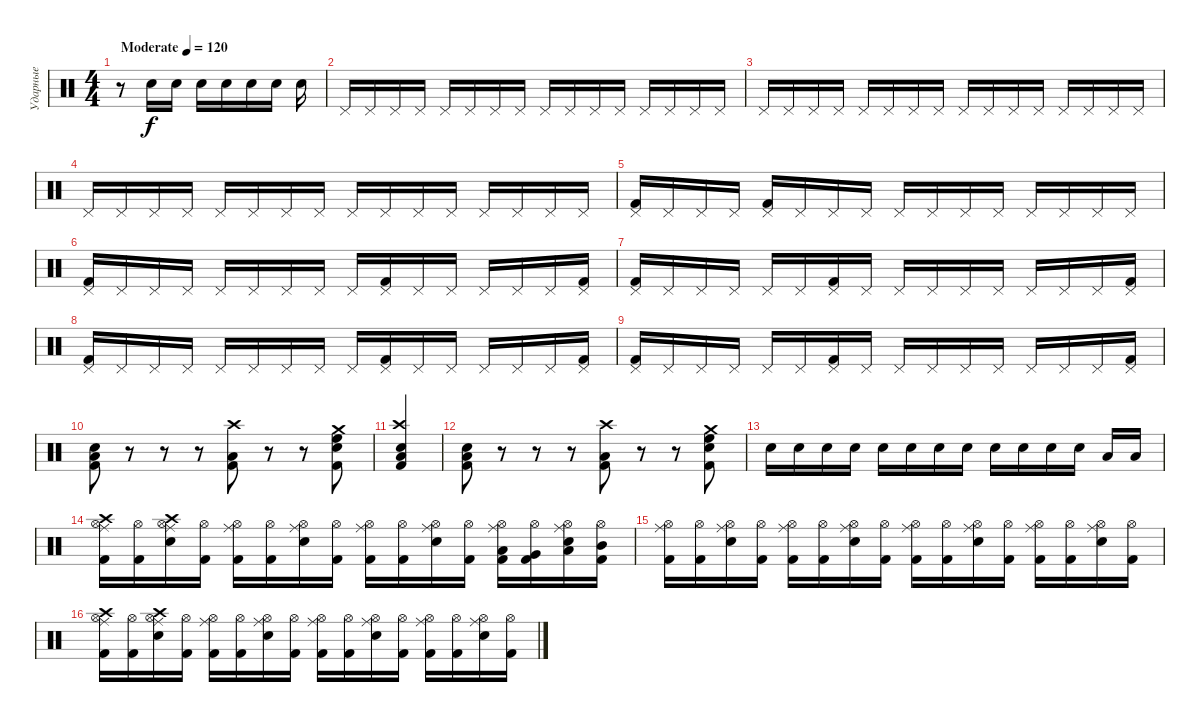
\track ("Ударные" "Ударные") {instrument percussion}
\staff {score}
\articulation defaults
\ts (4 4)
\tempo (120 "Moderate")
\clef neutral
\ks c
r.8{dy f} "Electric Snare (hit)".16 "Electric Snare (hit)".16 "Electric Snare (hit)".16 "Electric Snare (hit)".16 "Electric Snare (hit)".16 "Electric Snare (hit)".16 "Electric Snare (hit)".16 |
"Pedal Hi-Hat (hit)".16 "Pedal Hi-Hat (hit)".16 "Pedal Hi-Hat (hit)".16 "Pedal Hi-Hat (hit)".16 "Pedal Hi-Hat (hit)".16 "Pedal Hi-Hat (hit)".16 "Pedal Hi-Hat (hit)".16 "Pedal Hi-Hat (hit)".16 "Pedal Hi-Hat (hit)".16 "Pedal Hi-Hat (hit)".16 "Pedal Hi-Hat (hit)".16 "Pedal Hi-Hat (hit)".16 "Pedal Hi-Hat (hit)".16 "Pedal Hi-Hat (hit)".16 "Pedal Hi-Hat (hit)".16 "Pedal Hi-Hat (hit)".16 |
"Pedal Hi-Hat (hit)".16 "Pedal Hi-Hat (hit)".16 "Pedal Hi-Hat (hit)".16 "Pedal Hi-Hat (hit)".16 "Pedal Hi-Hat (hit)".16 "Pedal Hi-Hat (hit)".16 "Pedal Hi-Hat (hit)".16 "Pedal Hi-Hat (hit)".16 "Pedal Hi-Hat (hit)".16 "Pedal Hi-Hat (hit)".16 "Pedal Hi-Hat (hit)".16 "Pedal Hi-Hat (hit)".16 "Pedal Hi-Hat (hit)".16 "Pedal Hi-Hat (hit)".16 "Pedal Hi-Hat (hit)".16 "Pedal Hi-Hat (hit)".16 |
"Pedal Hi-Hat (hit)".16 "Pedal Hi-Hat (hit)".16 "Pedal Hi-Hat (hit)".16 "Pedal Hi-Hat (hit)".16 "Pedal Hi-Hat (hit)".16 "Pedal Hi-Hat (hit)".16 "Pedal Hi-Hat (hit)".16 "Pedal Hi-Hat (hit)".16 "Pedal Hi-Hat (hit)".16 "Pedal Hi-Hat (hit)".16 "Pedal Hi-Hat (hit)".16 "Pedal Hi-Hat (hit)".16 "Pedal Hi-Hat (hit)".16 "Pedal Hi-Hat (hit)".16 "Pedal Hi-Hat (hit)".16 "Pedal Hi-Hat (hit)".16 |
("Kick (hit) 2" "Pedal Hi-Hat (hit)").16 "Pedal Hi-Hat (hit)".16 "Pedal Hi-Hat (hit)".16 "Pedal Hi-Hat (hit)".16 ("Kick (hit) 2" "Pedal Hi-Hat (hit)").16 "Pedal Hi-Hat (hit)".16 "Pedal Hi-Hat (hit)".16 "Pedal Hi-Hat (hit)".16 "Pedal Hi-Hat (hit)".16 "Pedal Hi-Hat (hit)".16 "Pedal Hi-Hat (hit)".16 "Pedal Hi-Hat (hit)".16 "Pedal Hi-Hat (hit)".16 "Pedal Hi-Hat (hit)".16 "Pedal Hi-Hat (hit)".16 "Pedal Hi-Hat (hit)".16 |
("Kick (hit) 2" "Pedal Hi-Hat (hit)").16 "Pedal Hi-Hat (hit)".16 "Pedal Hi-Hat (hit)".16 "Pedal Hi-Hat (hit)".16 "Pedal Hi-Hat (hit)".16 "Pedal Hi-Hat (hit)".16 "Pedal Hi-Hat (hit)".16 "Pedal Hi-Hat (hit)".16 "Pedal Hi-Hat (hit)".16 ("Kick (hit) 2" "Pedal Hi-Hat (hit)").16 "Pedal Hi-Hat (hit)".16 "Pedal Hi-Hat (hit)".16 "Pedal Hi-Hat (hit)".16 "Pedal Hi-Hat (hit)".16 "Pedal Hi-Hat (hit)".16 ("Kick (hit) 2" "Pedal Hi-Hat (hit)").16 |
("Kick (hit) 2" "Pedal Hi-Hat (hit)").16 "Pedal Hi-Hat (hit)".16 "Pedal Hi-Hat (hit)".16 "Pedal Hi-Hat (hit)".16 "Pedal Hi-Hat (hit)".16 "Pedal Hi-Hat (hit)".16 ("Kick (hit) 2" "Pedal Hi-Hat (hit)").16 "Pedal Hi-Hat (hit)".16 "Pedal Hi-Hat (hit)".16 "Pedal Hi-Hat (hit)".16 "Pedal Hi-Hat (hit)".16 "Pedal Hi-Hat (hit)".16 "Pedal Hi-Hat (hit)".16 "Pedal Hi-Hat (hit)".16 "Pedal Hi-Hat (hit)".16 ("Kick (hit) 2" "Pedal Hi-Hat (hit)").16 |
("Kick (hit) 2" "Pedal Hi-Hat (hit)").16 "Pedal Hi-Hat (hit)".16 "Pedal Hi-Hat (hit)".16 "Pedal Hi-Hat (hit)".16 "Pedal Hi-Hat (hit)".16 "Pedal Hi-Hat (hit)".16 "Pedal Hi-Hat (hit)".16 "Pedal Hi-Hat (hit)".16 "Pedal Hi-Hat (hit)".16 ("Kick (hit) 2" "Pedal Hi-Hat (hit)").16 "Pedal Hi-Hat (hit)".16 "Pedal Hi-Hat (hit)".16 "Pedal Hi-Hat (hit)".16 "Pedal Hi-Hat (hit)".16 "Pedal Hi-Hat (hit)".16 ("Kick (hit) 2" "Pedal Hi-Hat (hit)").16 |
("Kick (hit) 2" "Pedal Hi-Hat (hit)").16 "Pedal Hi-Hat (hit)".16 "Pedal Hi-Hat (hit)".16 "Pedal Hi-Hat (hit)".16 "Pedal Hi-Hat (hit)".16 "Pedal Hi-Hat (hit)".16 ("Kick (hit) 2" "Pedal Hi-Hat (hit)").16 "Pedal Hi-Hat (hit)".16 "Pedal Hi-Hat (hit)".16 "Pedal Hi-Hat (hit)".16 "Pedal Hi-Hat (hit)".16 "Pedal Hi-Hat (hit)".16 "Pedal Hi-Hat (hit)".16 "Pedal Hi-Hat (hit)".16 "Pedal Hi-Hat (hit)".16 ("Kick (hit) 2" "Pedal Hi-Hat (hit)").16 |
("Low Floor Tom (hit)" "Electric Snare (hit)" "Kick (hit) 2").8 r.8 r.8 r.8 ("Kick (hit) 2" "Low Tom (hit)" "Crash high (hit)").8 r.8 r.8 ("Kick (hit) 2" "Snare (hit) 2" "High Floor Tom (hit)" "Crash medium (hit)").8 |
("Kick (hit) 2" "Snare (hit) 2" "Low Floor Tom (hit)" "Crash high (hit)").4 |
("Low Floor Tom (hit)" "Electric Snare (hit)" "Kick (hit) 2").8 r.8 r.8 r.8 ("Kick (hit) 2" "Low Tom (hit)" "Crash high (hit)").8 r.8 r.8 ("Kick (hit) 2" "Snare (hit) 2" "High Floor Tom (hit)" "Crash medium (hit)").8 |
"Electric Snare (hit)".16 "Electric Snare (hit)".16 "Electric Snare (hit)".16 "Electric Snare (hit)".16 "Electric Snare (hit)".16 "Electric Snare (hit)".16 "Electric Snare (hit)".16 "Electric Snare (hit)".16 "Electric Snare (hit)".16 "Electric Snare (hit)".16 "Electric Snare (hit)".16 "Electric Snare (hit)".16 "Low Floor Tom (hit)".16 "Low Tom (hit)".16 |
("Hi-Hat (open)" "Ride (middle)" "Kick (hit) 2" "Crash high (hit)").16 ("Hi-Hat (open)" "Kick (hit) 2").16 ("Hi-Hat (open)" "Ride (middle)" "Snare (hit) 2" "Crash high (hit)").16 ("Hi-Hat (open)" "Kick (hit) 2").16 ("Hi-Hat (open)" "Ride (middle)" "Kick (hit) 2").16 ("Hi-Hat (open)" "Kick (hit) 2").16 ("Hi-Hat (open)" "Ride (middle)" "Snare (hit) 2").16 ("Hi-Hat (open)" "Kick (hit) 2").16 ("Hi-Hat (open)" "Ride (middle)" "Kick (hit) 2").16 ("Hi-Hat (open)" "Kick (hit) 2").16 ("Hi-Hat (open)" "Ride (middle)" "Snare (hit) 2").16 ("Hi-Hat (open)" "Kick (hit) 2").16 ("Hi-Hat (open)" "Ride (middle)" "Kick (hit) 2" "Low Floor Tom (hit)").16 ("Hi-Hat (open)" "Kick (hit) 2" "Very Low Tom (hit)").16 ("Hi-Hat (open)" "Ride (middle)" "Snare (hit) 2" "Low Tom (hit)").16 ("Hi-Hat (open)" "Kick (hit) 2" "Mid Tom (hit)").16 |
("Hi-Hat (open)" "Ride (middle)" "Kick (hit) 2").16 ("Hi-Hat (open)" "Kick (hit) 2").16 ("Hi-Hat (open)" "Ride (middle)" "Snare (hit) 2").16 ("Hi-Hat (open)" "Kick (hit) 2").16 ("Hi-Hat (open)" "Ride (middle)" "Kick (hit) 2").16 ("Hi-Hat (open)" "Kick (hit) 2").16 ("Hi-Hat (open)" "Ride (middle)" "Snare (hit) 2").16 ("Hi-Hat (open)" "Kick (hit) 2").16 ("Hi-Hat (open)" "Ride (middle)" "Kick (hit) 2").16 ("Hi-Hat (open)" "Kick (hit) 2").16 ("Hi-Hat (open)" "Ride (middle)" "Snare (hit) 2").16 ("Hi-Hat (open)" "Kick (hit) 2").16 ("Hi-Hat (open)" "Ride (middle)" "Kick (hit) 2").16 ("Hi-Hat (open)" "Kick (hit) 2").16 ("Hi-Hat (open)" "Ride (middle)" "Snare (hit) 2").16 ("Hi-Hat (open)" "Kick (hit) 2").16 |
("Hi-Hat (open)" "Ride (middle)" "Kick (hit) 2" "Crash high (hit)").16 ("Hi-Hat (open)" "Kick (hit) 2").16 ("Hi-Hat (open)" "Ride (middle)" "Snare (hit) 2" "Crash high (hit)").16 ("Hi-Hat (open)" "Kick (hit) 2").16 ("Hi-Hat (open)" "Ride (middle)" "Kick (hit) 2").16 ("Hi-Hat (open)" "Kick (hit) 2").16 ("Hi-Hat (open)" "Ride (middle)" "Snare (hit) 2").16 ("Hi-Hat (open)" "Kick (hit) 2").16 ("Hi-Hat (open)" "Ride (middle)" "Kick (hit) 2").16 ("Hi-Hat (open)" "Kick (hit) 2").16 ("Hi-Hat (open)" "Ride (middle)" "Snare (hit) 2").16 ("Hi-Hat (open)" "Kick (hit) 2").16 ("Hi-Hat (open)" "Ride (middle)" "Kick (hit) 2").16 ("Hi-Hat (open)" "Kick (hit) 2").16 ("Hi-Hat (open)" "Ride (middle)" "Snare (hit) 2").16 ("Hi-Hat (open)" "Kick (hit) 2").16
